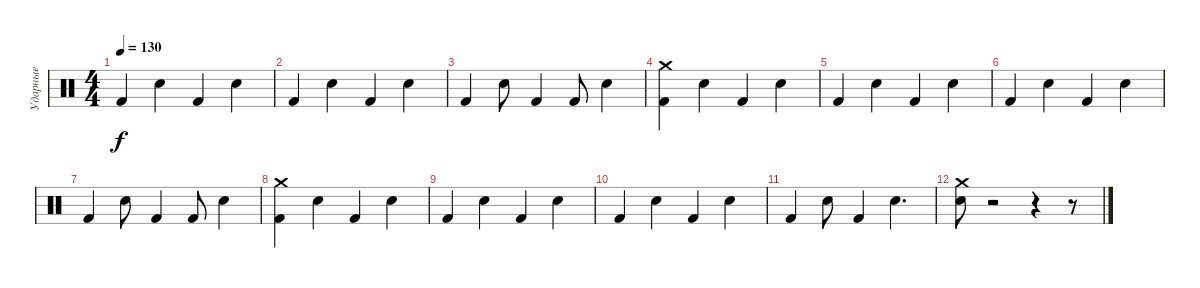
\track ("Ударные" "Ударные") {instrument percussion}
\staff {score}
\articulation defaults
\ts (4 4)
\tempo 130
\clef neutral
\ks c "Kick (hit) 2".4{dy f} "Snare (hit) 2".4 "Kick (hit) 2".4 "Snare (hit) 2".4
|
"Kick (hit) 2".4 "Snare (hit) 2".4 "Kick (hit) 2".4 "Snare (hit) 2".4 |
"Kick (hit) 2".4 "Snare (hit) 2".8 "Kick (hit) 2".4 "Kick (hit) 2".8 "Snare (hit) 2".4 |
("Kick (hit) 2" "Crash medium (hit)").4 "Snare (hit) 2".4 "Kick (hit) 2".4 "Snare (hit) 2".4 |
"Kick (hit) 2".4 "Snare (hit) 2".4 "Kick (hit) 2".4 "Snare (hit) 2".4 |
"Kick (hit) 2".4 "Snare (hit) 2".4 "Kick (hit) 2".4 "Snare (hit) 2".4 |
"Kick (hit) 2".4 "Snare (hit) 2".8 "Kick (hit) 2".4 "Kick (hit) 2".8 "Snare (hit) 2".4 |
("Kick (hit) 2" "Crash medium (hit)").4 "Snare (hit) 2".4 "Kick (hit) 2".4 "Snare (hit) 2".4 |
"Kick (hit) 2".4 "Snare (hit) 2".4 "Kick (hit) 2".4 "Snare (hit) 2".4 |
"Kick (hit) 2".4 "Snare (hit) 2".4 "Kick (hit) 2".4 "Snare (hit) 2".4 |
"Kick (hit) 2".4 "Snare (hit) 2".8 "Kick (hit) 2".4 "Snare (hit) 2".4{d} |
("Snare (hit) 2" "Crash medium (hit)").8 r.2 r.4 r.8
